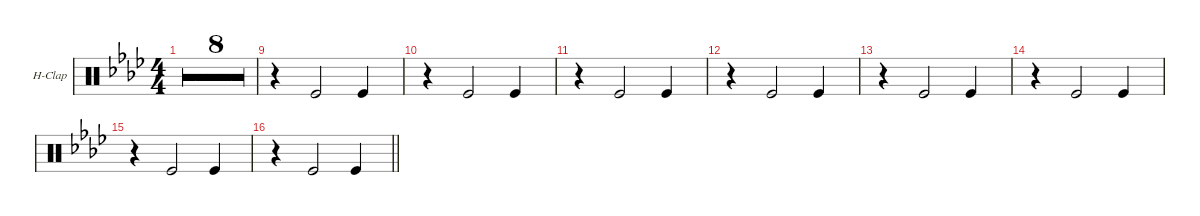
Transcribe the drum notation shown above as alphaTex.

\defaultSystemsLayout 4
\hideDynamics
\bracketExtendMode groupsimilarinstruments
\firstSystemTrackNameOrientation horizontal
\otherSystemsTrackNameOrientation horizontal
\track ("Hand Clap" "H-Clap") {multiBarRest instrument percussion}
\staff {score}
\articulation defaults
\ts (4 4)
\tempo 142
\clef neutral
\ks ab
r.1{dy fff} |
r.1 |
r.1 |
r.1 |
r.1 |
r.1 |
r.1 |
\barLineRight lightlight
r.1 |
r.4 "Kick (hit)".2 "Kick (hit)".4 |
r.4 "Kick (hit)".2 "Kick (hit)".4 |
r.4 "Kick (hit)".2 "Kick (hit)".4 |
r.4 "Kick (hit)".2 "Kick (hit)".4 |
r.4 "Kick (hit)".2 "Kick (hit)".4 |
r.4 "Kick (hit)".2 "Kick (hit)".4 |
r.4 "Kick (hit)".2 "Kick (hit)".4 |
\barLineRight lightlight
r.4 "Kick (hit)".2 "Kick (hit)".4
